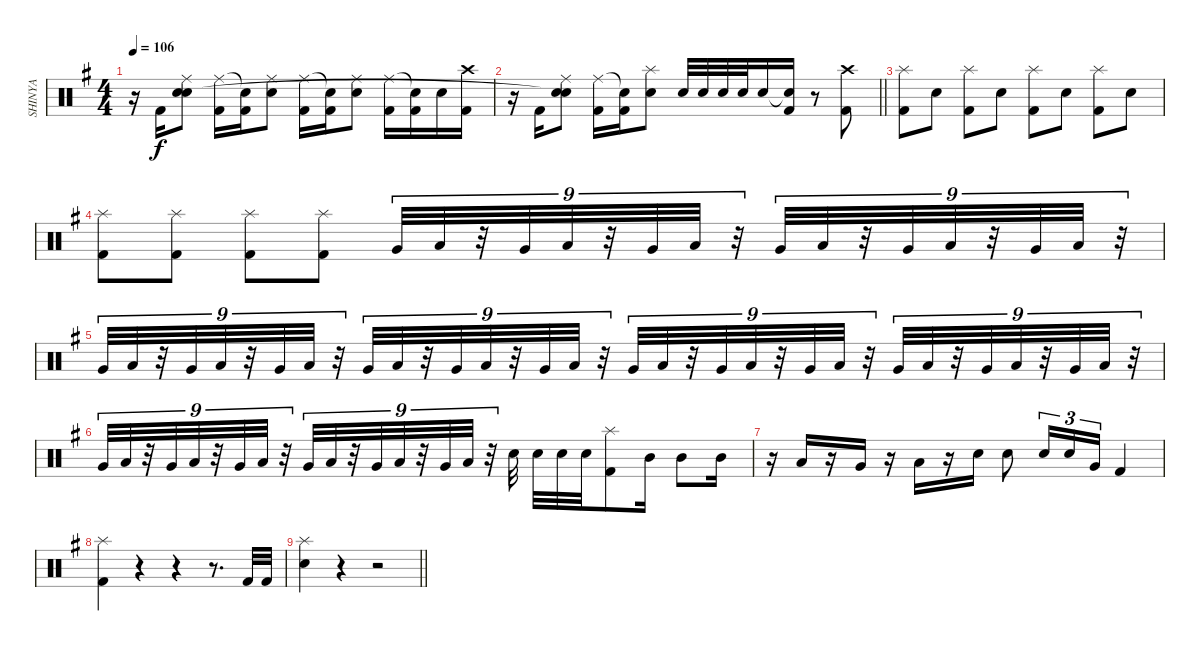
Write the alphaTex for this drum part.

\track ("SHINYA" "SHINYA") {instrument percussion}
\staff {score}
\articulation defaults
\ts (4 4)
\tempo 106
\clef neutral
\ks g
r.16{dy f} "Kick (hit) 2".16 ("Ride (middle)" "Electric Snare (hit)" "Snare (hit)"{t}).8 ("Ride (middle)" "Kick (hit) 2").16 ("Snare (hit)"{t} "Kick (hit) 2").16 ("Ride (middle)" "Electric Snare (hit)").8 ("Ride (middle)" "Kick (hit) 2").16 ("Snare (hit)"{t} "Kick (hit) 2").16 ("Ride (middle)" "Electric Snare (hit)").8 ("Ride (middle)" "Kick (hit) 2").16 ("Snare (hit)"{t} "Kick (hit) 2").16 "Electric Snare (hit)".16 ("Crash high (hit)" "Kick (hit) 2").16 |
\barLineRight lightlight
r.16 "Kick (hit) 2".16 ("Ride (middle)" "Electric Snare (hit)" "Snare (hit)"{t}).8 ("Ride (middle)" "Kick (hit) 2").16 ("Snare (hit)"{t} "Kick (hit) 2").16 ("Splash (hit)" "Electric Snare (hit)").8 "Electric Snare (hit)".32 "Electric Snare (hit)".32 "Electric Snare (hit)".32 "Electric Snare (hit)".32 "Electric Snare (hit)".16 ("Snare (hit)"{t} "Kick (hit) 2").16 r.8 ("Crash high (hit)" "Kick (hit) 2").8 |
("Splash (hit)" "Kick (hit) 2").8 "Electric Snare (hit)".8 ("Splash (hit)" "Kick (hit) 2").8 "Electric Snare (hit)".8 ("Splash (hit)" "Kick (hit) 2").8 "Electric Snare (hit)".8 ("Splash (hit)" "Kick (hit) 2").8 "Electric Snare (hit)".8 |
("Splash (hit)" "Kick (hit) 2").8 ("Splash (hit)" "Kick (hit) 2").8 ("Splash (hit)" "Kick (hit) 2").8 ("Splash (hit)" "Kick (hit) 2").8 "Very Low Tom (hit)".32{tu (9 8)} "Low Floor Tom (hit)".32{tu (9 8)} r.32{tu (9 8)} "Very Low Tom (hit)".32{tu (9 8)} "Low Floor Tom (hit)".32{tu (9 8)} r.32{tu (9 8)} "Very Low Tom (hit)".32{tu (9 8)} "Low Floor Tom (hit)".32{tu (9 8)} r.32{tu (9 8)} "Very Low Tom (hit)".32{tu (9 8)} "Low Floor Tom (hit)".32{tu (9 8)} r.32{tu (9 8)} "Very Low Tom (hit)".32{tu (9 8)} "Low Floor Tom (hit)".32{tu (9 8)} r.32{tu (9 8)} "Very Low Tom (hit)".32{tu (9 8)} "Low Floor Tom (hit)".32{tu (9 8)} r.32{tu (9 8)} |
"Very Low Tom (hit)".32{tu (9 8)} "Low Floor Tom (hit)".32{tu (9 8)} r.32{tu (9 8)} "Very Low Tom (hit)".32{tu (9 8)} "Low Floor Tom (hit)".32{tu (9 8)} r.32{tu (9 8)} "Very Low Tom (hit)".32{tu (9 8)} "Low Floor Tom (hit)".32{tu (9 8)} r.32{tu (9 8)} "Very Low Tom (hit)".32{tu (9 8)} "Low Floor Tom (hit)".32{tu (9 8)} r.32{tu (9 8)} "Very Low Tom (hit)".32{tu (9 8)} "Low Floor Tom (hit)".32{tu (9 8)} r.32{tu (9 8)} "Very Low Tom (hit)".32{tu (9 8)} "Low Floor Tom (hit)".32{tu (9 8)} r.32{tu (9 8)} "Very Low Tom (hit)".32{tu (9 8)} "Low Floor Tom (hit)".32{tu (9 8)} r.32{tu (9 8)} "Very Low Tom (hit)".32{tu (9 8)} "Low Floor Tom (hit)".32{tu (9 8)} r.32{tu (9 8)} "Very Low Tom (hit)".32{tu (9 8)} "Low Floor Tom (hit)".32{tu (9 8)} r.32{tu (9 8)} "Very Low Tom (hit)".32{tu (9 8)} "Low Floor Tom (hit)".32{tu (9 8)} r.32{tu (9 8)} "Very Low Tom (hit)".32{tu (9 8)} "Low Floor Tom (hit)".32{tu (9 8)} r.32{tu (9 8)} "Very Low Tom (hit)".32{tu (9 8)} "Low Floor Tom (hit)".32{tu (9 8)} r.32{tu (9 8)} |
"Very Low Tom (hit)".32{tu (9 8)} "Low Floor Tom (hit)".32{tu (9 8)} r.32{tu (9 8)} "Very Low Tom (hit)".32{tu (9 8)} "Low Floor Tom (hit)".32{tu (9 8)} r.32{tu (9 8)} "Very Low Tom (hit)".32{tu (9 8)} "Low Floor Tom (hit)".32{tu (9 8)} r.32{tu (9 8)} "Very Low Tom (hit)".32{tu (9 8)} "Low Floor Tom (hit)".32{tu (9 8)} r.32{tu (9 8)} "Very Low Tom (hit)".32{tu (9 8)} "Low Floor Tom (hit)".32{tu (9 8)} r.32{tu (9 8)} "Very Low Tom (hit)".32{tu (9 8)} "Low Floor Tom (hit)".32{tu (9 8)} r.32{tu (9 8)} "Electric Snare (hit)".32 "Electric Snare (hit)".32 "Electric Snare (hit)".32 "Electric Snare (hit)".32 ("Splash (hit)" "Kick (hit) 2").8 "Mid Tom (hit)".16 "Mid Tom (hit)".8 "Mid Tom (hit)".16 |
r.16 "Low Tom (hit)".16 r.16 "Very Low Tom (hit)".16 r.16 "Low Floor Tom (hit)".16 r.16 "Electric Snare (hit)".16 "Electric Snare (hit)".8 "Electric Snare (hit)".16{tu (3 2)} "Electric Snare (hit)".16{tu (3 2)} "Very Low Tom (hit)".16{tu (3 2)} "Kick (hit) 2".4 |
("Splash (hit)" "Kick (hit) 2").4 r.4 r.4 r.8{d} "Kick (hit) 2".32 "Kick (hit) 2".32 |
\barLineRight lightlight
("Splash (hit)" "Electric Snare (hit)").4 r.4 r.2
